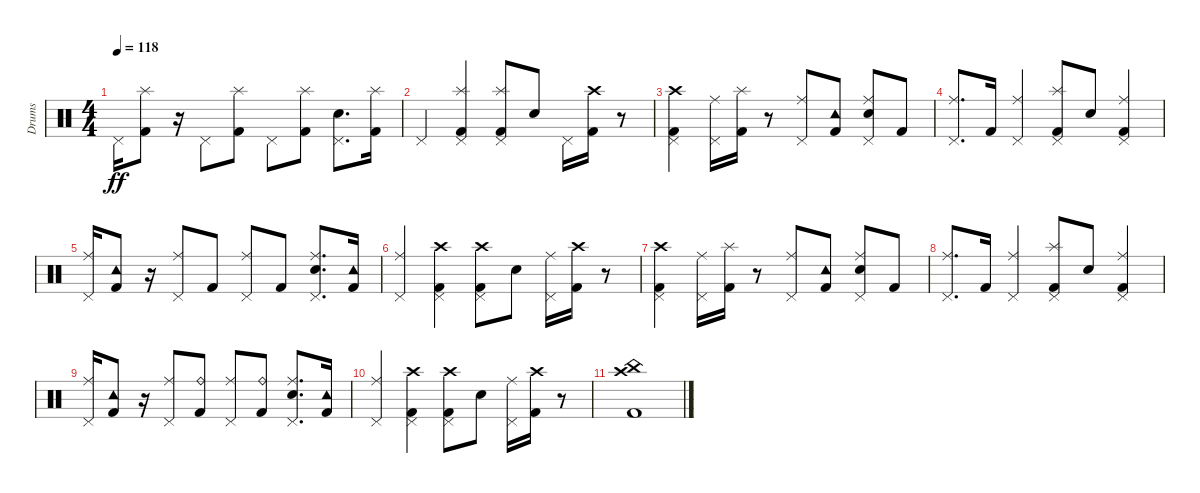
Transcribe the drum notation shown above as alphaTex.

\track ("Drums" "Drums") {instrument percussion}
\staff {score}
\articulation defaults
\ts (4 4)
\tempo 118
\clef neutral
\ks c "Pedal Hi-Hat (hit)".16{dy ff}
("Splash (hit)" "Kick (hit) 2").8 r.16 "Pedal Hi-Hat (hit)".8 ("Splash (hit)" "Kick (hit) 2").8 "Pedal Hi-Hat (hit)".8 ("Splash (hit)" "Kick (hit) 2").8 ("Pedal Hi-Hat (hit)" "Electric Snare (hit)").8{d} ("Splash (hit)" "Kick (hit) 2").16 |
"Pedal Hi-Hat (hit)".4 ("Splash (hit)" "Pedal Hi-Hat (hit)" "Kick (hit) 2").4 ("Splash (hit)" "Pedal Hi-Hat (hit)" "Kick (hit) 2").8 "Electric Snare (hit)".8 "Pedal Hi-Hat (hit)".16 ("Crash high (hit)" "Kick (hit) 2").16 r.8 |
\section ("" "")
("Crash high (hit)" "Pedal Hi-Hat (hit)" "Kick (hit) 2").4 ("Ride (middle)" "Pedal Hi-Hat (hit)").16 ("Splash (hit)" "Kick (hit) 2").16 r.8 ("Ride (middle)" "Pedal Hi-Hat (hit)").8 ("Tambourine (hit)" "Kick (hit) 2").8 ("Ride (middle)" "Pedal Hi-Hat (hit)" "Electric Snare (hit)").8 "Kick (hit) 2".8 |
("Ride (middle)" "Pedal Hi-Hat (hit)").8{d} "Kick (hit) 2".16 ("Ride (middle)" "Pedal Hi-Hat (hit)").4 ("Splash (hit)" "Pedal Hi-Hat (hit)" "Kick (hit) 2").8 "Electric Snare (hit)".8 ("Ride (middle)" "Pedal Hi-Hat (hit)" "Kick (hit) 2").4 |
("Ride (middle)" "Pedal Hi-Hat (hit)").16 ("Tambourine (hit)" "Kick (hit) 2").8 r.16 ("Ride (middle)" "Pedal Hi-Hat (hit)").8 "Kick (hit) 2".8 ("Ride (middle)" "Pedal Hi-Hat (hit)").8 "Kick (hit) 2".8 ("Ride (middle)" "Pedal Hi-Hat (hit)" "Electric Snare (hit)").8{d} ("Tambourine (hit)" "Kick (hit) 2").16 |
("Ride (middle)" "Pedal Hi-Hat (hit)").4 ("Crash high (hit)" "Pedal Hi-Hat (hit)" "Kick (hit) 2").4 ("Crash high (hit)" "Pedal Hi-Hat (hit)" "Kick (hit) 2").8 "Electric Snare (hit)".8 ("Ride (middle)" "Pedal Hi-Hat (hit)").16 ("Crash high (hit)" "Kick (hit) 2").16 r.8 |
("Crash high (hit)" "Pedal Hi-Hat (hit)" "Kick (hit) 2").4 ("Ride (middle)" "Pedal Hi-Hat (hit)").16 ("Splash (hit)" "Kick (hit) 2").16 r.8 ("Ride (middle)" "Pedal Hi-Hat (hit)").8 ("Tambourine (hit)" "Kick (hit) 2").8 ("Ride (middle)" "Pedal Hi-Hat (hit)" "Electric Snare (hit)").8 "Kick (hit) 2".8 |
("Ride (middle)" "Pedal Hi-Hat (hit)").8{d} "Kick (hit) 2".16 ("Ride (middle)" "Pedal Hi-Hat (hit)").4 ("Splash (hit)" "Pedal Hi-Hat (hit)" "Kick (hit) 2").8 "Electric Snare (hit)".8 ("Ride (middle)" "Pedal Hi-Hat (hit)" "Kick (hit) 2").4 |
("Ride (middle)" "Pedal Hi-Hat (hit)").16 ("Tambourine (hit)" "Kick (hit) 2").8 r.16 ("Ride (middle)" "Pedal Hi-Hat (hit)").8 ("Ride (bell)" "Kick (hit) 2").8 ("Ride (middle)" "Pedal Hi-Hat (hit)").8 ("Ride (bell)" "Kick (hit) 2").8 ("Ride (middle)" "Pedal Hi-Hat (hit)" "Electric Snare (hit)").8{d} ("Tambourine (hit)" "Kick (hit) 2").16 |
("Ride (middle)" "Pedal Hi-Hat (hit)").4 ("Crash high (hit)" "Pedal Hi-Hat (hit)" "Kick (hit) 2").4 ("Crash high (hit)" "Pedal Hi-Hat (hit)" "Kick (hit) 2").8 "Electric Snare (hit)".8 ("Ride (middle)" "Pedal Hi-Hat (hit)").16 ("Crash high (hit)" "Kick (hit) 2").16 r.8 |
\section ("" "")
("Crash high (hit)" "China (hit)" "Kick (hit) 2").1
